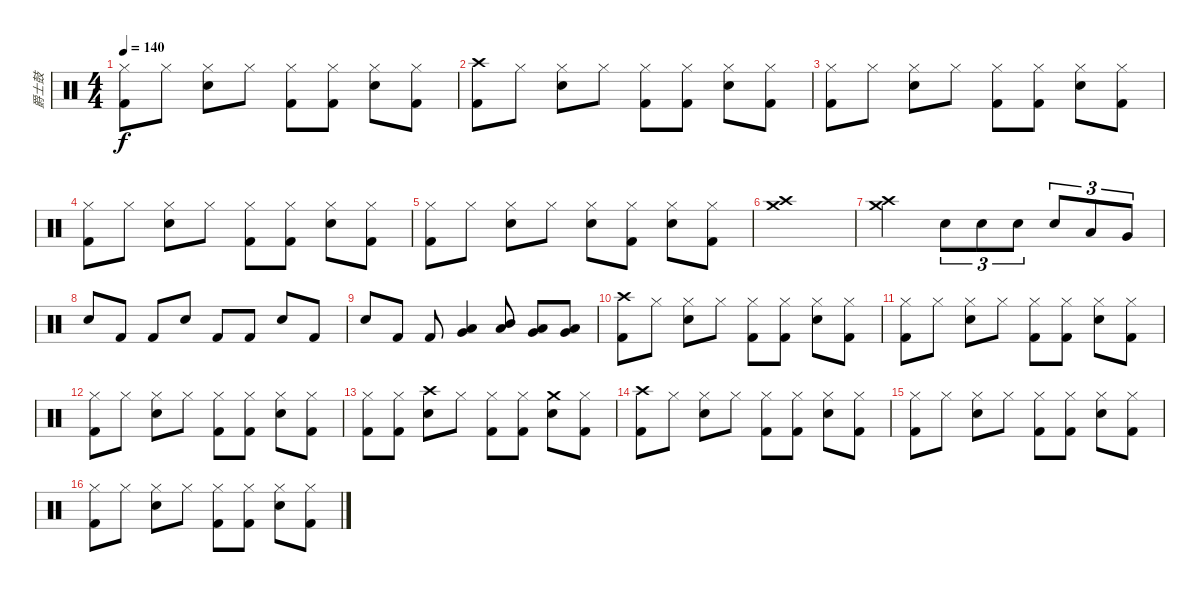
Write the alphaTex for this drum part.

\track ("爵士鼓" "爵士鼓") {instrument percussion}
\staff {score}
\articulation defaults
\ts (4 4)
\tempo 140
\clef neutral
\ks c
("Hi-Hat (closed)" "Kick (hit) 2").8{dy f} "Hi-Hat (closed)".8 ("Hi-Hat (closed)" "Electric Snare (hit)").8 "Hi-Hat (closed)".8 ("Hi-Hat (closed)" "Kick (hit) 2").8 ("Hi-Hat (closed)" "Kick (hit) 2").8 ("Hi-Hat (closed)" "Electric Snare (hit)").8 ("Hi-Hat (closed)" "Kick (hit) 2").8 |
("Crash high (hit)" "Kick (hit) 2").8 "Hi-Hat (closed)".8 ("Hi-Hat (closed)" "Electric Snare (hit)").8 "Hi-Hat (closed)".8 ("Hi-Hat (closed)" "Kick (hit) 2").8 ("Hi-Hat (closed)" "Kick (hit) 2").8 ("Hi-Hat (closed)" "Electric Snare (hit)").8 ("Hi-Hat (closed)" "Kick (hit) 2").8 |
("Hi-Hat (closed)" "Kick (hit) 2").8 "Hi-Hat (closed)".8 ("Hi-Hat (closed)" "Electric Snare (hit)").8 "Hi-Hat (closed)".8 ("Hi-Hat (closed)" "Kick (hit) 2").8 ("Hi-Hat (closed)" "Kick (hit) 2").8 ("Hi-Hat (closed)" "Electric Snare (hit)").8 ("Hi-Hat (closed)" "Kick (hit) 2").8 |
("Hi-Hat (closed)" "Kick (hit) 2").8 "Hi-Hat (closed)".8 ("Hi-Hat (closed)" "Electric Snare (hit)").8 "Hi-Hat (closed)".8 ("Hi-Hat (closed)" "Kick (hit) 2").8 ("Hi-Hat (closed)" "Kick (hit) 2").8 ("Hi-Hat (closed)" "Electric Snare (hit)").8 ("Hi-Hat (closed)" "Kick (hit) 2").8 |
("Hi-Hat (closed)" "Kick (hit) 2").8 "Hi-Hat (closed)".8 ("Hi-Hat (closed)" "Electric Snare (hit)").8 "Hi-Hat (closed)".8 ("Hi-Hat (closed)" "Electric Snare (hit)").8 ("Hi-Hat (closed)" "Kick (hit) 2").8 ("Hi-Hat (closed)" "Electric Snare (hit)").8 ("Hi-Hat (closed)" "Kick (hit) 2").8 |
("Crash high (hit)" "Crash medium (hit)").1 |
("Crash high (hit)" "Crash medium (hit)").2 "Electric Snare (hit)".8{tu (3 2)} "Electric Snare (hit)".8{tu (3 2)} "Electric Snare (hit)".8{tu (3 2)} "Electric Snare (hit)".8{tu (3 2)} "Low Tom (hit)".8{tu (3 2)} "Very Low Tom (hit)".8{tu (3 2)} |
"Electric Snare (hit)".8 "Kick (hit) 2".8 "Kick (hit) 2".8 "Electric Snare (hit)".8 "Kick (hit) 2".8 "Kick (hit) 2".8 "Electric Snare (hit)".8 "Kick (hit) 2".8 |
"Electric Snare (hit)".8 "Kick (hit) 2".8 "Kick (hit) 2".8 ("Low Tom (hit)" "Very Low Tom (hit)").4 ("Mid Tom (hit)" "Low Tom (hit)").8 ("Low Tom (hit)" "Very Low Tom (hit)").8 ("Very Low Tom (hit)" "Low Floor Tom (hit)").8 |
("Crash high (hit)" "Kick (hit) 2").8 "Hi-Hat (closed)".8 ("Hi-Hat (closed)" "Electric Snare (hit)").8 "Hi-Hat (closed)".8 ("Hi-Hat (closed)" "Kick (hit) 2").8 ("Hi-Hat (closed)" "Kick (hit) 2").8 ("Hi-Hat (closed)" "Electric Snare (hit)").8 ("Hi-Hat (closed)" "Kick (hit) 2").8 |
("Hi-Hat (closed)" "Kick (hit) 2").8 "Hi-Hat (closed)".8 ("Hi-Hat (closed)" "Electric Snare (hit)").8 "Hi-Hat (closed)".8 ("Hi-Hat (closed)" "Kick (hit) 2").8 ("Hi-Hat (closed)" "Kick (hit) 2").8 ("Hi-Hat (closed)" "Electric Snare (hit)").8 ("Hi-Hat (closed)" "Kick (hit) 2").8 |
("Hi-Hat (closed)" "Kick (hit) 2").8 "Hi-Hat (closed)".8 ("Hi-Hat (closed)" "Electric Snare (hit)").8 "Hi-Hat (closed)".8 ("Hi-Hat (closed)" "Kick (hit) 2").8 ("Hi-Hat (closed)" "Kick (hit) 2").8 ("Hi-Hat (closed)" "Electric Snare (hit)").8 ("Hi-Hat (closed)" "Kick (hit) 2").8 |
("Hi-Hat (closed)" "Kick (hit) 2").8 ("Hi-Hat (closed)" "Kick (hit) 2").8 ("Crash high (hit)" "Electric Snare (hit)").8 "Hi-Hat (closed)".8 ("Hi-Hat (closed)" "Kick (hit) 2").8 ("Hi-Hat (closed)" "Kick (hit) 2").8 ("Crash medium (hit)" "Electric Snare (hit)").8 ("Hi-Hat (closed)" "Kick (hit) 2").8 |
("Crash high (hit)" "Kick (hit) 2").8 "Hi-Hat (closed)".8 ("Hi-Hat (closed)" "Electric Snare (hit)").8 "Hi-Hat (closed)".8 ("Hi-Hat (closed)" "Kick (hit) 2").8 ("Hi-Hat (closed)" "Kick (hit) 2").8 ("Hi-Hat (closed)" "Electric Snare (hit)").8 ("Hi-Hat (closed)" "Kick (hit) 2").8 |
("Hi-Hat (closed)" "Kick (hit) 2").8 "Hi-Hat (closed)".8 ("Hi-Hat (closed)" "Electric Snare (hit)").8 "Hi-Hat (closed)".8 ("Hi-Hat (closed)" "Kick (hit) 2").8 ("Hi-Hat (closed)" "Kick (hit) 2").8 ("Hi-Hat (closed)" "Electric Snare (hit)").8 ("Hi-Hat (closed)" "Kick (hit) 2").8 |
("Hi-Hat (closed)" "Kick (hit) 2").8 "Hi-Hat (closed)".8 ("Hi-Hat (closed)" "Electric Snare (hit)").8 "Hi-Hat (closed)".8 ("Hi-Hat (closed)" "Kick (hit) 2").8 ("Hi-Hat (closed)" "Kick (hit) 2").8 ("Hi-Hat (closed)" "Electric Snare (hit)").8 ("Hi-Hat (closed)" "Kick (hit) 2").8
